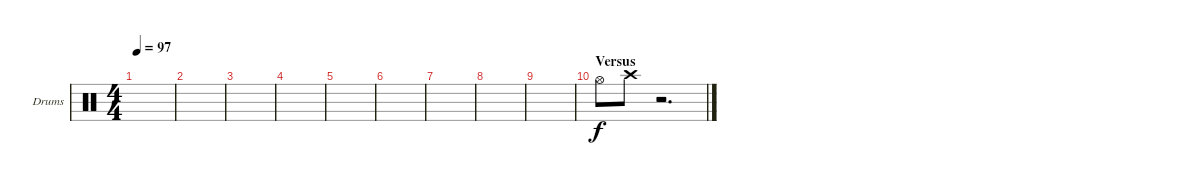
\bracketExtendMode groupsimilarinstruments
\firstSystemTrackNameOrientation horizontal
\otherSystemsTrackNameOrientation horizontal
\track ("OH" "Drums") {instrument percussion}
\staff {score}
\articulation defaults
\ts (4 4)
\tempo 97
\clef neutral
\ks c
|
|
|
|
|
|
|
|
|
\section ("" "Versus")
"Hi-Hat (open)".8 "Crash high (hit)".8 r.2{d}
